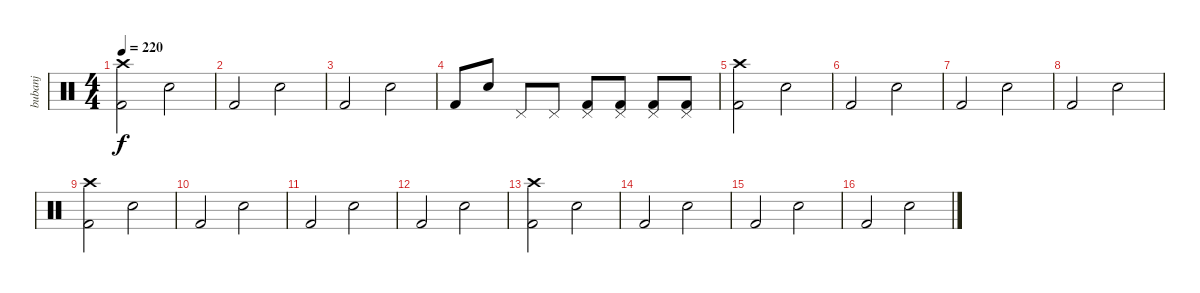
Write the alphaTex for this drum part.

\track ("bubanj" "bubanj") {instrument percussion}
\staff {score}
\articulation defaults
\ts (4 4)
\tempo 220
\clef neutral
\ks c
("Kick (hit) 2" "Crash high (hit)").2{dy f} "Snare (hit) 2".2 |
"Kick (hit) 2".2 "Snare (hit) 2".2 |
"Kick (hit) 2".2 "Snare (hit) 2".2 |
"Kick (hit) 2".8 "Snare (hit) 2".8 "Pedal Hi-Hat (hit)".8 "Pedal Hi-Hat (hit)".8 ("Pedal Hi-Hat (hit)" "Kick (hit) 2").8 ("Pedal Hi-Hat (hit)" "Kick (hit) 2").8 ("Pedal Hi-Hat (hit)" "Kick (hit) 2").8 ("Pedal Hi-Hat (hit)" "Kick (hit) 2").8 |
("Kick (hit) 2" "Crash high (hit)").2 "Snare (hit) 2".2 |
"Kick (hit) 2".2 "Snare (hit) 2".2 |
"Kick (hit) 2".2 "Snare (hit) 2".2 |
"Kick (hit) 2".2 "Snare (hit) 2".2 |
("Kick (hit) 2" "Crash high (hit)").2 "Snare (hit) 2".2 |
"Kick (hit) 2".2 "Snare (hit) 2".2 |
"Kick (hit) 2".2 "Snare (hit) 2".2 |
"Kick (hit) 2".2 "Snare (hit) 2".2 |
("Kick (hit) 2" "Crash high (hit)").2 "Snare (hit) 2".2 |
"Kick (hit) 2".2 "Snare (hit) 2".2 |
"Kick (hit) 2".2 "Snare (hit) 2".2 |
"Kick (hit) 2".2 "Snare (hit) 2".2
